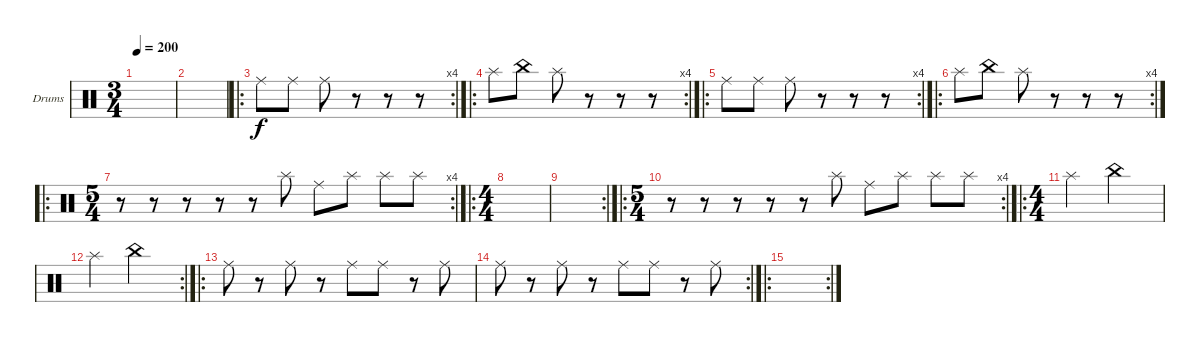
\defaultSystemsLayout 4
\bracketExtendMode groupsimilarinstruments
\firstSystemTrackNameOrientation horizontal
\otherSystemsTrackNameOrientation horizontal
\track ("Midget Caverly" "Drums") {instrument percussion}
\staff {score}
\articulation defaults
\ts (3 4)
\tempo 200
\clef neutral
\ks c
|
|
\ro
\rc 4 "Ride (middle)".8 "Ride (middle)".8 "Ride (middle)".8
r.8 r.8 r.8 |
\ro
\rc 4 "Splash (hit)".8 "China (hit)".8 "Splash (hit)".8
r.8 r.8 r.8 |
\ro
\rc 4 "Ride (middle)".8 "Ride (middle)".8 "Ride (middle)".8
r.8 r.8 r.8 |
\ro
\rc 4 "Splash (hit)".8 "China (hit)".8 "Splash (hit)".8
r.8 r.8 r.8 |
\ro
\rc 4
\ts (5 4)
r.8 r.8 r.8 r.8 r.8 "Splash (hit)".8 "Ride (middle)".8 "Splash (hit)".8 "Splash (hit)".8 "Splash (hit)".8 |
\ro
\ts (4 4)
|
\rc 2
|
\ro
\rc 4
\ts (5 4)
r.8 r.8 r.8 r.8 r.8 "Splash (hit)".8 "Ride (middle)".8 "Splash (hit)".8 "Splash (hit)".8 "Splash (hit)".8 |
\ro
\ts (4 4)
"Splash (hit)".2 "China (hit)".2 |
\rc 2 "Splash (hit)".2 "China (hit)".2
|
\ro "Ride (middle)".8
r.8 "Ride (middle)".8 r.8 "Ride (middle)".8 "Ride (middle)".8 r.8 "Ride (middle)".8 |
\rc 2 "Ride (middle)".8
r.8 "Ride (middle)".8 r.8 "Ride (middle)".8 "Ride (middle)".8 r.8 "Ride (middle)".8 |
\ro
\rc 2
